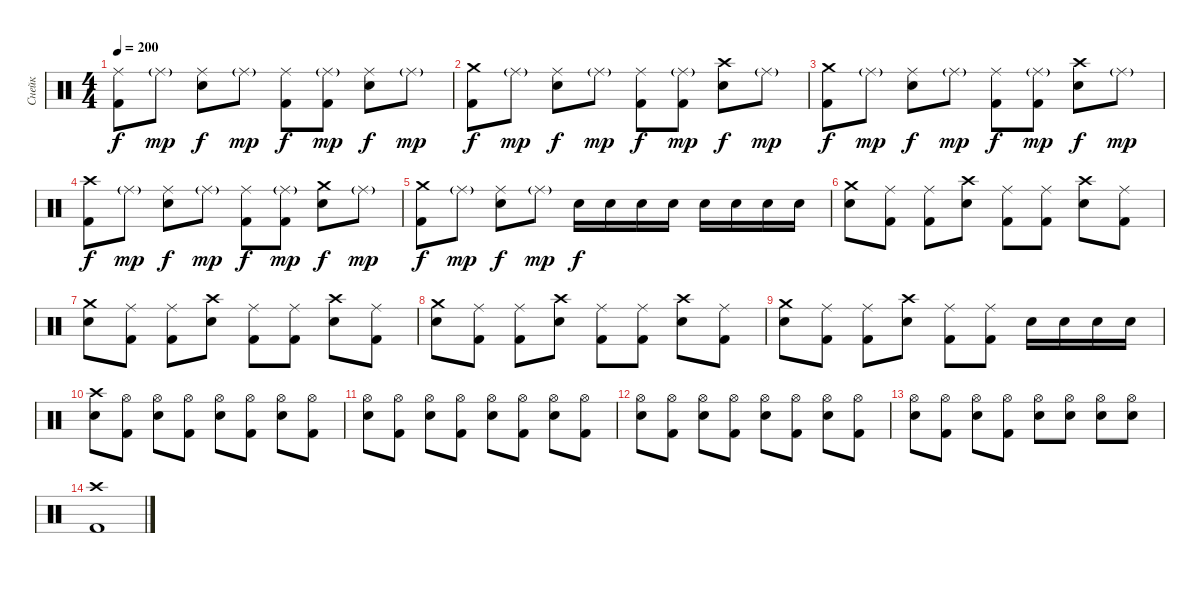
\track ("Снейк" "Снейк") {instrument percussion}
\staff {score}
\articulation defaults
\ts (4 4)
\tempo 200
\clef neutral
\ks c
("Ride (middle)" "Kick (hit) 2").8{dy f} "Ride (middle)"{g}.8{dy mp} ("Ride (middle)" "Electric Snare (hit)").8{dy f} "Ride (middle)"{g}.8{dy mp} ("Ride (middle)" "Kick (hit) 2").8{dy f} ("Ride (middle)"{g} "Kick (hit) 2").8{dy mp} ("Ride (middle)" "Electric Snare (hit)").8{dy f} "Ride (middle)"{g}.8{dy mp} |
("Crash medium (hit)" "Kick (hit) 2").8{dy f} "Ride (middle)"{g}.8{dy mp} ("Ride (middle)" "Electric Snare (hit)").8{dy f} "Ride (middle)"{g}.8{dy mp} ("Ride (middle)" "Kick (hit) 2").8{dy f} ("Ride (middle)"{g} "Kick (hit) 2").8{dy mp} ("Crash high (hit)" "Electric Snare (hit)").8{dy f} "Ride (middle)"{g}.8{dy mp} |
("Crash medium (hit)" "Kick (hit) 2").8{dy f} "Ride (middle)"{g}.8{dy mp} ("Ride (middle)" "Electric Snare (hit)").8{dy f} "Ride (middle)"{g}.8{dy mp} ("Ride (middle)" "Kick (hit) 2").8{dy f} ("Ride (middle)"{g} "Kick (hit) 2").8{dy mp} ("Crash high (hit)" "Electric Snare (hit)").8{dy f} "Ride (middle)"{g}.8{dy mp} |
("Crash high (hit)" "Kick (hit) 2").8{dy f} "Ride (middle)"{g}.8{dy mp} ("Ride (middle)" "Electric Snare (hit)").8{dy f} "Ride (middle)"{g}.8{dy mp} ("Ride (middle)" "Kick (hit) 2").8{dy f} ("Ride (middle)"{g} "Kick (hit) 2").8{dy mp} ("Crash medium (hit)" "Electric Snare (hit)").8{dy f} "Ride (middle)"{g}.8{dy mp} |
("Crash medium (hit)" "Kick (hit) 2").8{dy f} "Ride (middle)"{g}.8{dy mp} ("Ride (middle)" "Electric Snare (hit)").8{dy f} "Ride (middle)"{g}.8{dy mp} "Electric Snare (hit)".16{dy f} "Electric Snare (hit)".16 "Electric Snare (hit)".16 "Electric Snare (hit)".16 "Electric Snare (hit)".16 "Electric Snare (hit)".16 "Electric Snare (hit)".16 "Electric Snare (hit)".16 |
("Electric Snare (hit)" "Crash medium (hit)").8 ("Kick (hit) 2" "Ride (middle)").8 ("Kick (hit) 2" "Ride (middle)").8 ("Electric Snare (hit)" "Crash high (hit)").8 ("Kick (hit) 2" "Ride (middle)").8 ("Kick (hit) 2" "Ride (middle)").8 ("Electric Snare (hit)" "Crash high (hit)").8 ("Kick (hit) 2" "Ride (middle)").8 |
("Electric Snare (hit)" "Crash medium (hit)").8 ("Kick (hit) 2" "Ride (middle)").8 ("Kick (hit) 2" "Ride (middle)").8 ("Electric Snare (hit)" "Crash high (hit)").8 ("Kick (hit) 2" "Ride (middle)").8 ("Kick (hit) 2" "Ride (middle)").8 ("Electric Snare (hit)" "Crash high (hit)").8 ("Kick (hit) 2" "Ride (middle)").8 |
("Electric Snare (hit)" "Crash medium (hit)").8 ("Kick (hit) 2" "Ride (middle)").8 ("Kick (hit) 2" "Ride (middle)").8 ("Electric Snare (hit)" "Crash high (hit)").8 ("Kick (hit) 2" "Ride (middle)").8 ("Kick (hit) 2" "Ride (middle)").8 ("Electric Snare (hit)" "Crash high (hit)").8 ("Kick (hit) 2" "Ride (middle)").8 |
("Electric Snare (hit)" "Crash medium (hit)").8 ("Kick (hit) 2" "Ride (middle)").8 ("Kick (hit) 2" "Ride (middle)").8 ("Electric Snare (hit)" "Crash high (hit)").8 ("Kick (hit) 2" "Ride (middle)").8 ("Kick (hit) 2" "Ride (middle)").8 "Electric Snare (hit)".16 "Electric Snare (hit)".16 "Electric Snare (hit)".16 "Electric Snare (hit)".16 |
("Electric Snare (hit)" "Crash high (hit)").8 ("Kick (hit) 2" "Hi-Hat (open)").8 ("Electric Snare (hit)" "Hi-Hat (open)").8 ("Kick (hit) 2" "Hi-Hat (open)").8 ("Electric Snare (hit)" "Hi-Hat (open)").8 ("Kick (hit) 2" "Hi-Hat (open)").8 ("Electric Snare (hit)" "Hi-Hat (open)").8 ("Kick (hit) 2" "Hi-Hat (open)").8 |
("Electric Snare (hit)" "Hi-Hat (open)").8 ("Kick (hit) 2" "Hi-Hat (open)").8 ("Electric Snare (hit)" "Hi-Hat (open)").8 ("Kick (hit) 2" "Hi-Hat (open)").8 ("Electric Snare (hit)" "Hi-Hat (open)").8 ("Kick (hit) 2" "Hi-Hat (open)").8 ("Electric Snare (hit)" "Hi-Hat (open)").8 ("Kick (hit) 2" "Hi-Hat (open)").8 |
("Electric Snare (hit)" "Hi-Hat (open)").8 ("Kick (hit) 2" "Hi-Hat (open)").8 ("Electric Snare (hit)" "Hi-Hat (open)").8 ("Kick (hit) 2" "Hi-Hat (open)").8 ("Electric Snare (hit)" "Hi-Hat (open)").8 ("Kick (hit) 2" "Hi-Hat (open)").8 ("Electric Snare (hit)" "Hi-Hat (open)").8 ("Kick (hit) 2" "Hi-Hat (open)").8 |
("Electric Snare (hit)" "Hi-Hat (open)").8 ("Kick (hit) 2" "Hi-Hat (open)").8 ("Electric Snare (hit)" "Hi-Hat (open)").8 ("Kick (hit) 2" "Hi-Hat (open)").8 ("Electric Snare (hit)" "Hi-Hat (open)").8 ("Electric Snare (hit)" "Hi-Hat (open)").8 ("Electric Snare (hit)" "Hi-Hat (open)").8 ("Electric Snare (hit)" "Hi-Hat (open)").8 |
("Kick (hit) 2" "Crash high (hit)").1
